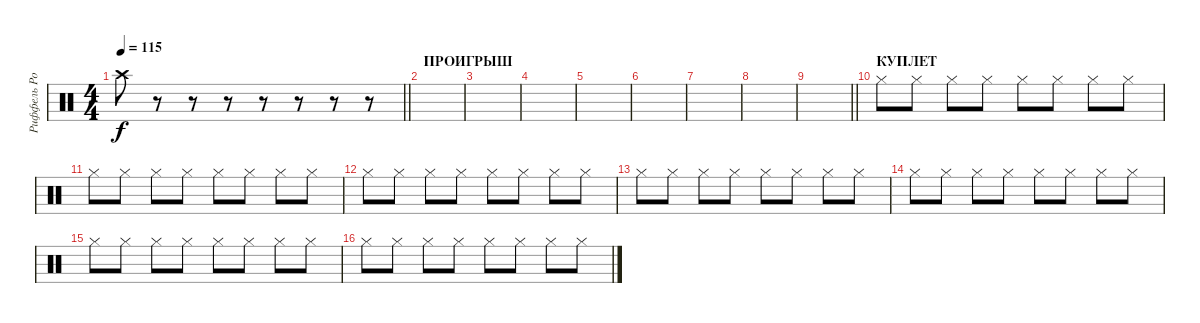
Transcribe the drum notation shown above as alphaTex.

\track ("Риффель Роман (хэты)" "Риффель Ро") {instrument percussion}
\staff {score}
\articulation defaults
\ts (4 4)
\tempo 115
\clef neutral
\barLineRight lightlight
\ks c "Crash high (hit)".8{dy f}
r.8 r.8 r.8 r.8 r.8 r.8 r.8 |
\section ("" "ПРОИГРЫШ")
|
|
|
|
|
|
|
\barLineRight lightlight
|
\section ("" "КУПЛЕТ")
"Hi-Hat (closed)".8 "Hi-Hat (closed)".8 "Hi-Hat (closed)".8 "Hi-Hat (closed)".8 "Hi-Hat (closed)".8 "Hi-Hat (closed)".8 "Hi-Hat (closed)".8 "Hi-Hat (closed)".8 |
"Hi-Hat (closed)".8 "Hi-Hat (closed)".8 "Hi-Hat (closed)".8 "Hi-Hat (closed)".8 "Hi-Hat (closed)".8 "Hi-Hat (closed)".8 "Hi-Hat (closed)".8 "Hi-Hat (closed)".8 |
"Hi-Hat (closed)".8 "Hi-Hat (closed)".8 "Hi-Hat (closed)".8 "Hi-Hat (closed)".8 "Hi-Hat (closed)".8 "Hi-Hat (closed)".8 "Hi-Hat (closed)".8 "Hi-Hat (closed)".8 |
"Hi-Hat (closed)".8 "Hi-Hat (closed)".8 "Hi-Hat (closed)".8 "Hi-Hat (closed)".8 "Hi-Hat (closed)".8 "Hi-Hat (closed)".8 "Hi-Hat (closed)".8 "Hi-Hat (closed)".8 |
"Hi-Hat (closed)".8 "Hi-Hat (closed)".8 "Hi-Hat (closed)".8 "Hi-Hat (closed)".8 "Hi-Hat (closed)".8 "Hi-Hat (closed)".8 "Hi-Hat (closed)".8 "Hi-Hat (closed)".8 |
"Hi-Hat (closed)".8 "Hi-Hat (closed)".8 "Hi-Hat (closed)".8 "Hi-Hat (closed)".8 "Hi-Hat (closed)".8 "Hi-Hat (closed)".8 "Hi-Hat (closed)".8 "Hi-Hat (closed)".8 |
"Hi-Hat (closed)".8 "Hi-Hat (closed)".8 "Hi-Hat (closed)".8 "Hi-Hat (closed)".8 "Hi-Hat (closed)".8 "Hi-Hat (closed)".8 "Hi-Hat (closed)".8 "Hi-Hat (closed)".8
